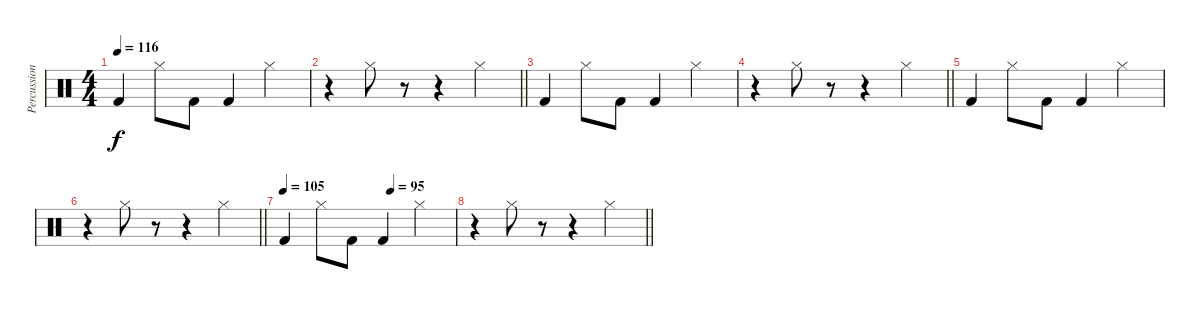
\track ("Percussion" "Percussion") {instrument percussion}
\staff {score}
\articulation defaults
\ts (4 4)
\tempo 116
\clef neutral
\ks c "Kick (hit) 2".4{dy f} "Hi-Hat (closed)".8 "Kick (hit) 2".8 "Kick (hit) 2".4 "Hi-Hat (closed)".4
|
\barLineRight lightlight
r.4 "Hi-Hat (closed)".8 r.8 r.4 "Hi-Hat (closed)".4 |
"Kick (hit) 2".4 "Hi-Hat (closed)".8 "Kick (hit) 2".8 "Kick (hit) 2".4 "Hi-Hat (closed)".4 |
\barLineRight lightlight
r.4 "Hi-Hat (closed)".8 r.8 r.4 "Hi-Hat (closed)".4 |
"Kick (hit) 2".4 "Hi-Hat (closed)".8 "Kick (hit) 2".8 "Kick (hit) 2".4 "Hi-Hat (closed)".4 |
\barLineRight lightlight
r.4 "Hi-Hat (closed)".8 r.8 r.4 "Hi-Hat (closed)".4 |
\tempo 105
\tempo (95 0.625)
"Kick (hit) 2".4 "Hi-Hat (closed)".8 "Kick (hit) 2".8 "Kick (hit) 2".4 "Hi-Hat (closed)".4 |
\barLineRight lightlight
r.4 "Hi-Hat (closed)".8 r.8 r.4 "Hi-Hat (closed)".4
